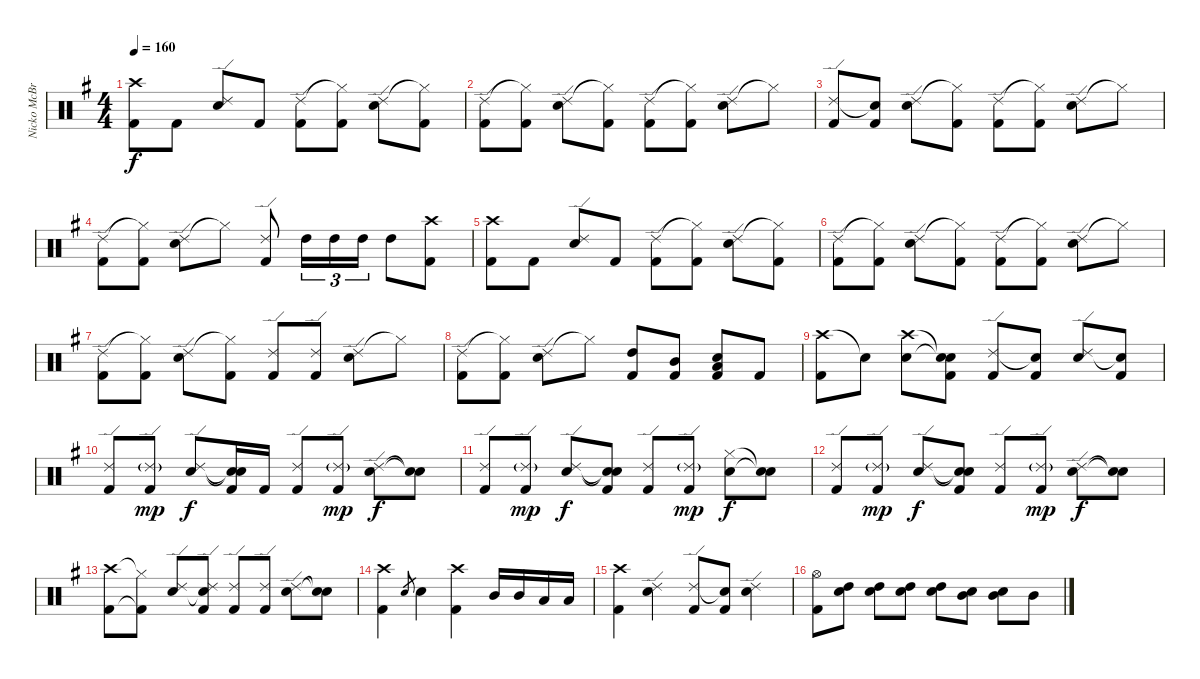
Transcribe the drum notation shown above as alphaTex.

\track ("Nicko McBrain" "Nicko McBr") {instrument percussion}
\staff {score}
\articulation defaults
\ts (4 4)
\tempo 160
\clef neutral
\ks g
("Crash high (hit)" "Kick (hit) 2").8{dy f} "Kick (hit) 2".8 ("Ride (edge) 2" "Electric Snare (hit)").8 "Kick (hit) 2".8 ("Ride (edge) 2" "Kick (hit) 2").8 ("Hi-Hat (closed)"{t} "Kick (hit) 2").8 ("Ride (edge) 2" "Electric Snare (hit)").8 ("Hi-Hat (closed)"{t} "Kick (hit) 2").8 |
("Ride (edge) 2" "Kick (hit) 2").8 ("Hi-Hat (closed)"{t} "Kick (hit) 2").8 ("Ride (edge) 2" "Electric Snare (hit)").8 ("Hi-Hat (closed)"{t} "Kick (hit) 2").8 ("Ride (edge) 2" "Kick (hit) 2").8 ("Hi-Hat (closed)"{t} "Kick (hit) 2").8 ("Ride (edge) 2" "Electric Snare (hit)").8 "Hi-Hat (closed)"{t}.8 |
("Ride (edge) 2" "Kick (hit) 2").8 ("Snare (hit)"{t} "Kick (hit) 2").8 ("Ride (edge) 2" "Electric Snare (hit)").8 ("Hi-Hat (closed)"{t} "Kick (hit) 2").8 ("Ride (edge) 2" "Kick (hit) 2").8 ("Hi-Hat (closed)"{t} "Kick (hit) 2").8 ("Ride (edge) 2" "Electric Snare (hit)").8 "Hi-Hat (closed)"{t}.8 |
("Ride (edge) 2" "Kick (hit) 2").8 ("Hi-Hat (closed)"{t} "Kick (hit) 2").8 ("Ride (edge) 2" "Electric Snare (hit)").8 "Hi-Hat (closed)"{t}.8 ("Ride (edge) 2" "Kick (hit) 2").8 "High Tom (hit)".16{tu (3 2)} "High Tom (hit)".16{tu (3 2)} "High Tom (hit)".16{tu (3 2)} "High Tom (hit)".8 ("Crash high (hit)" "Kick (hit) 2").8 |
("Crash high (hit)" "Kick (hit) 2").8 "Kick (hit) 2".8 ("Ride (edge) 2" "Electric Snare (hit)").8 "Kick (hit) 2".8 ("Ride (edge) 2" "Kick (hit) 2").8 ("Hi-Hat (closed)"{t} "Kick (hit) 2").8 ("Ride (edge) 2" "Electric Snare (hit)").8 ("Hi-Hat (closed)"{t} "Kick (hit) 2").8 |
("Ride (edge) 2" "Kick (hit) 2").8 ("Hi-Hat (closed)"{t} "Kick (hit) 2").8 ("Ride (edge) 2" "Electric Snare (hit)").8 ("Hi-Hat (closed)"{t} "Kick (hit) 2").8 ("Ride (edge) 2" "Kick (hit) 2").8 ("Hi-Hat (closed)"{t} "Kick (hit) 2").8 ("Ride (edge) 2" "Electric Snare (hit)").8 "Hi-Hat (closed)"{t}.8 |
("Ride (edge) 2" "Kick (hit) 2").8 ("Hi-Hat (closed)"{t} "Kick (hit) 2").8 ("Ride (edge) 2" "Electric Snare (hit)").8 ("Hi-Hat (closed)"{t} "Kick (hit) 2").8 ("Ride (edge) 2" "Kick (hit) 2").8 ("Ride (edge) 2" "Kick (hit) 2").8 ("Ride (edge) 2" "Electric Snare (hit)").8 "Hi-Hat (closed)"{t}.8 |
("Ride (edge) 2" "Kick (hit) 2").8 ("Hi-Hat (closed)"{t} "Kick (hit) 2").8 ("Ride (edge) 2" "Electric Snare (hit)").8 "Hi-Hat (closed)"{t}.8 ("High Tom (hit)" "Kick (hit) 2").8 ("Mid Tom (hit)" "Kick (hit) 2").8 ("Electric Snare (hit)" "Low Tom (hit)" "Kick (hit) 2").8 "Kick (hit) 2".8 |
("Crash high (hit)" "Kick (hit) 2").8 "Snare (hit)"{t}.8 ("Crash high (hit)" "Electric Snare (hit)").8 ("Snare (hit)"{t} "Snare (hit)"{t} "Kick (hit) 2").8 ("Ride (edge) 2" "Kick (hit) 2").8 ("Snare (hit)"{t} "Kick (hit) 2").8 ("Ride (edge) 2" "Electric Snare (hit)").8 ("Snare (hit)"{t} "Kick (hit) 2").8 |
("Ride (edge) 2" "Kick (hit) 2").8 ("Ride (edge) 2"{g} "Kick (hit) 2").8{dy mp} ("Ride (edge) 2" "Electric Snare (hit)").8{dy f} ("Snare (hit)"{t} "Snare (hit)"{t} "Kick (hit) 2").16 "Kick (hit) 2".16 ("Ride (edge) 2" "Kick (hit) 2").8 ("Ride (edge) 2"{g} "Kick (hit) 2").8{dy mp} ("Ride (edge) 2" "Electric Snare (hit)").8{dy f} ("Snare (hit)"{t} "Snare (hit)"{t}).8 |
("Ride (edge) 2" "Kick (hit) 2").8 ("Ride (edge) 2"{g} "Kick (hit) 2").8{dy mp} ("Ride (edge) 2" "Electric Snare (hit)").8{dy f} ("Snare (hit)"{t} "Snare (hit)"{t} "Kick (hit) 2").8 ("Ride (edge) 2" "Kick (hit) 2").8 ("Ride (edge) 2"{g} "Kick (hit) 2").8{dy mp} ("Hi-Hat (closed)" "Electric Snare (hit)").8{dy f} ("Snare (hit)"{t} "Snare (hit)"{t}).8 |
("Ride (edge) 2" "Kick (hit) 2").8 ("Ride (edge) 2"{g} "Kick (hit) 2").8{dy mp} ("Ride (edge) 2" "Electric Snare (hit)").8{dy f} ("Snare (hit)"{t} "Snare (hit)"{t} "Kick (hit) 2").8 ("Ride (edge) 2" "Kick (hit) 2").8 ("Ride (edge) 2"{g} "Kick (hit) 2").8{dy mp} ("Ride (edge) 2" "Electric Snare (hit)").8{dy f} ("Snare (hit)"{t} "Snare (hit)"{t}).8 |
("Crash high (hit)" "Kick (hit) 2").8 ("Hi-Hat (closed)"{t} "Kick (hit) 2"{t}).8 ("Ride (edge) 2" "Electric Snare (hit)").8 ("Ride (edge) 2" "Snare (hit)"{t} "Kick (hit) 2").8 ("Ride (edge) 2" "Kick (hit) 2").8 ("Ride (edge) 2" "Kick (hit) 2").8 ("Ride (edge) 2" "Electric Snare (hit)").8 ("Snare (hit)"{t} "Snare (hit)"{t}).8 |
("Crash high (hit)" "Kick (hit) 2").4 "Electric Snare (hit)"{h}.8{gr} "Electric Snare (hit)".4 ("Crash high (hit)" "Kick (hit) 2").4 "Mid Tom (hit)".16 "Mid Tom (hit)".16 "Low Tom (hit)".16 "Low Tom (hit)".16 |
("Crash high (hit)" "Kick (hit) 2").4 ("Ride (edge) 2" "Electric Snare (hit)").4 ("Ride (edge) 2" "Kick (hit) 2").8 ("Snare (hit)"{t} "Kick (hit) 2").8 ("Ride (edge) 2" "Electric Snare (hit)").4 |
("Hi-Hat (open)" "Kick (hit) 2").8 ("Electric Snare (hit)" "High Tom (hit)").8 ("Electric Snare (hit)" "High Tom (hit)").8 ("Electric Snare (hit)" "High Tom (hit)").8 ("Electric Snare (hit)" "High Tom (hit)").8 ("Electric Snare (hit)" "Mid Tom (hit)").8 ("Electric Snare (hit)" "Mid Tom (hit)").8 "Mid Tom (hit)".8
